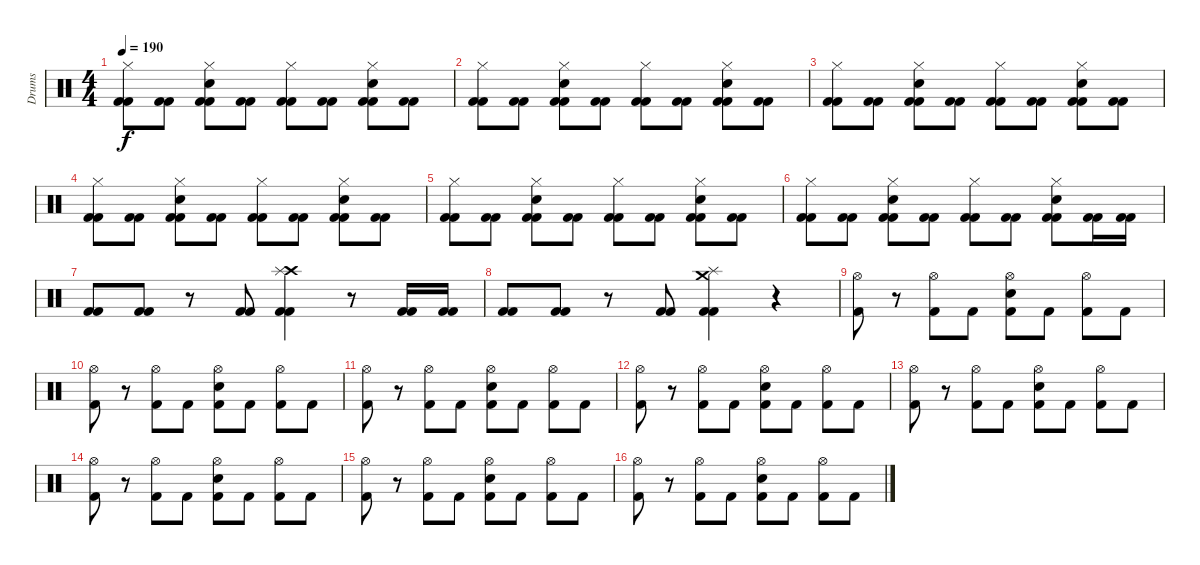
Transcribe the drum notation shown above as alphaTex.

\track ("Drums" "Drums") {instrument percussion}
\staff {score}
\articulation defaults
\ts (4 4)
\tempo 190
\clef neutral
\ks c
("Hi-Hat (closed)" "Kick (hit) 2" "Kick (hit) 2").8{dy f} ("Kick (hit) 2" "Kick (hit) 2").8 ("Hi-Hat (closed)" "Snare (hit) 2" "Kick (hit) 2" "Kick (hit) 2").8 ("Kick (hit) 2" "Kick (hit) 2").8 ("Hi-Hat (closed)" "Kick (hit) 2" "Kick (hit) 2").8 ("Kick (hit) 2" "Kick (hit) 2").8 ("Hi-Hat (closed)" "Snare (hit) 2" "Kick (hit) 2" "Kick (hit) 2").8 ("Kick (hit) 2" "Kick (hit) 2").8 |
("Hi-Hat (closed)" "Kick (hit) 2" "Kick (hit) 2").8 ("Kick (hit) 2" "Kick (hit) 2").8 ("Hi-Hat (closed)" "Snare (hit) 2" "Kick (hit) 2" "Kick (hit) 2").8 ("Kick (hit) 2" "Kick (hit) 2").8 ("Hi-Hat (closed)" "Kick (hit) 2" "Kick (hit) 2").8 ("Kick (hit) 2" "Kick (hit) 2").8 ("Hi-Hat (closed)" "Snare (hit) 2" "Kick (hit) 2" "Kick (hit) 2").8 ("Kick (hit) 2" "Kick (hit) 2").8 |
("Hi-Hat (closed)" "Kick (hit) 2" "Kick (hit) 2").8 ("Kick (hit) 2" "Kick (hit) 2").8 ("Hi-Hat (closed)" "Snare (hit) 2" "Kick (hit) 2" "Kick (hit) 2").8 ("Kick (hit) 2" "Kick (hit) 2").8 ("Hi-Hat (closed)" "Kick (hit) 2" "Kick (hit) 2").8 ("Kick (hit) 2" "Kick (hit) 2").8 ("Hi-Hat (closed)" "Snare (hit) 2" "Kick (hit) 2" "Kick (hit) 2").8 ("Kick (hit) 2" "Kick (hit) 2").8 |
("Hi-Hat (closed)" "Kick (hit) 2" "Kick (hit) 2").8 ("Kick (hit) 2" "Kick (hit) 2").8 ("Hi-Hat (closed)" "Snare (hit) 2" "Kick (hit) 2" "Kick (hit) 2").8 ("Kick (hit) 2" "Kick (hit) 2").8 ("Hi-Hat (closed)" "Kick (hit) 2" "Kick (hit) 2").8 ("Kick (hit) 2" "Kick (hit) 2").8 ("Hi-Hat (closed)" "Snare (hit) 2" "Kick (hit) 2" "Kick (hit) 2").8 ("Kick (hit) 2" "Kick (hit) 2").8 |
("Hi-Hat (closed)" "Kick (hit) 2" "Kick (hit) 2").8 ("Kick (hit) 2" "Kick (hit) 2").8 ("Hi-Hat (closed)" "Snare (hit) 2" "Kick (hit) 2" "Kick (hit) 2").8 ("Kick (hit) 2" "Kick (hit) 2").8 ("Hi-Hat (closed)" "Kick (hit) 2" "Kick (hit) 2").8 ("Kick (hit) 2" "Kick (hit) 2").8 ("Hi-Hat (closed)" "Snare (hit) 2" "Kick (hit) 2" "Kick (hit) 2").8 ("Kick (hit) 2" "Kick (hit) 2").8 |
("Hi-Hat (closed)" "Kick (hit) 2" "Kick (hit) 2").8 ("Kick (hit) 2" "Kick (hit) 2").8 ("Hi-Hat (closed)" "Snare (hit) 2" "Kick (hit) 2" "Kick (hit) 2").8 ("Kick (hit) 2" "Kick (hit) 2").8 ("Hi-Hat (closed)" "Kick (hit) 2" "Kick (hit) 2").8 ("Kick (hit) 2" "Kick (hit) 2").8 ("Hi-Hat (closed)" "Snare (hit) 2" "Kick (hit) 2" "Kick (hit) 2").8 ("Kick (hit) 2" "Kick (hit) 2").16 ("Kick (hit) 2" "Kick (hit) 2").16 |
("Kick (hit) 2" "Kick (hit) 2").8 ("Kick (hit) 2" "Kick (hit) 2").8 r.8 ("Kick (hit) 2" "Kick (hit) 2").8 ("Crash high (hit)" "Splash (hit)" "Kick (hit) 2" "Kick (hit) 2").4 r.8 ("Kick (hit) 2" "Kick (hit) 2").16 ("Kick (hit) 2" "Kick (hit) 2").16 |
("Kick (hit) 2" "Kick (hit) 2").8 ("Kick (hit) 2" "Kick (hit) 2").8 r.8 ("Kick (hit) 2" "Kick (hit) 2").8 ("Splash (hit)" "Crash medium (hit)" "Kick (hit) 2" "Kick (hit) 2").4 r.4 |
("Hi-Hat (open)" "Kick (hit) 2").8 r.8 ("Hi-Hat (open)" "Kick (hit) 2").8 "Kick (hit) 2".8 ("Hi-Hat (open)" "Snare (hit) 2" "Kick (hit) 2").8 "Kick (hit) 2".8 ("Hi-Hat (open)" "Kick (hit) 2").8 "Kick (hit) 2".8 |
("Hi-Hat (open)" "Kick (hit) 2").8 r.8 ("Hi-Hat (open)" "Kick (hit) 2").8 "Kick (hit) 2".8 ("Hi-Hat (open)" "Snare (hit) 2" "Kick (hit) 2").8 "Kick (hit) 2".8 ("Hi-Hat (open)" "Kick (hit) 2").8 "Kick (hit) 2".8 |
("Hi-Hat (open)" "Kick (hit) 2").8 r.8 ("Hi-Hat (open)" "Kick (hit) 2").8 "Kick (hit) 2".8 ("Hi-Hat (open)" "Snare (hit) 2" "Kick (hit) 2").8 "Kick (hit) 2".8 ("Hi-Hat (open)" "Kick (hit) 2").8 "Kick (hit) 2".8 |
("Hi-Hat (open)" "Kick (hit) 2").8 r.8 ("Hi-Hat (open)" "Kick (hit) 2").8 "Kick (hit) 2".8 ("Hi-Hat (open)" "Snare (hit) 2" "Kick (hit) 2").8 "Kick (hit) 2".8 ("Hi-Hat (open)" "Kick (hit) 2").8 "Kick (hit) 2".8 |
("Hi-Hat (open)" "Kick (hit) 2").8 r.8 ("Hi-Hat (open)" "Kick (hit) 2").8 "Kick (hit) 2".8 ("Hi-Hat (open)" "Snare (hit) 2" "Kick (hit) 2").8 "Kick (hit) 2".8 ("Hi-Hat (open)" "Kick (hit) 2").8 "Kick (hit) 2".8 |
("Hi-Hat (open)" "Kick (hit) 2").8 r.8 ("Hi-Hat (open)" "Kick (hit) 2").8 "Kick (hit) 2".8 ("Hi-Hat (open)" "Snare (hit) 2" "Kick (hit) 2").8 "Kick (hit) 2".8 ("Hi-Hat (open)" "Kick (hit) 2").8 "Kick (hit) 2".8 |
("Hi-Hat (open)" "Kick (hit) 2").8 r.8 ("Hi-Hat (open)" "Kick (hit) 2").8 "Kick (hit) 2".8 ("Hi-Hat (open)" "Snare (hit) 2" "Kick (hit) 2").8 "Kick (hit) 2".8 ("Hi-Hat (open)" "Kick (hit) 2").8 "Kick (hit) 2".8 |
("Hi-Hat (open)" "Kick (hit) 2").8 r.8 ("Hi-Hat (open)" "Kick (hit) 2").8 "Kick (hit) 2".8 ("Hi-Hat (open)" "Snare (hit) 2" "Kick (hit) 2").8 "Kick (hit) 2".8 ("Hi-Hat (open)" "Kick (hit) 2").8 "Kick (hit) 2".8
